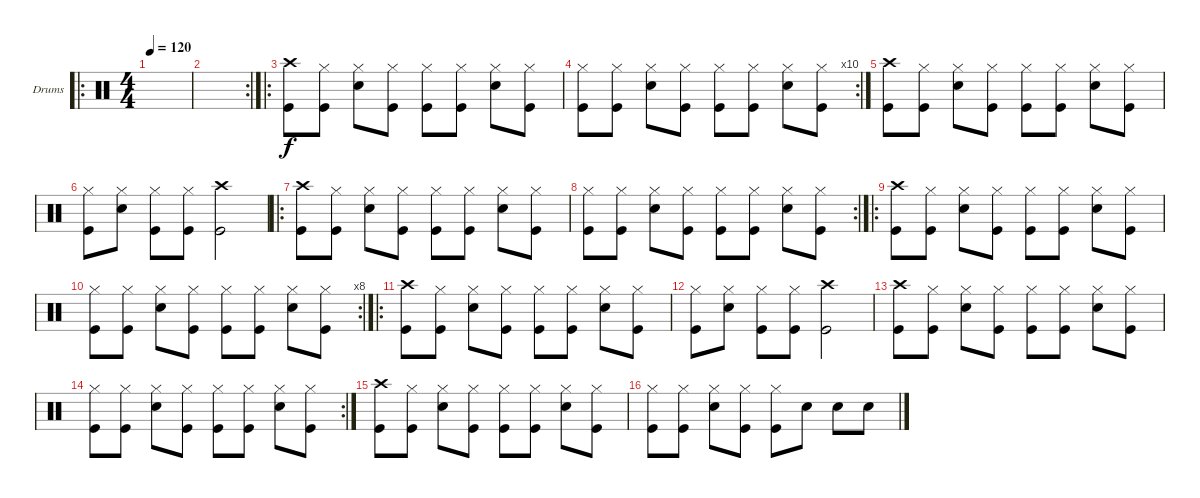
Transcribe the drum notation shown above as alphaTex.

\defaultSystemsLayout 4
\bracketExtendMode groupsimilarinstruments
\firstSystemTrackNameOrientation horizontal
\otherSystemsTrackNameOrientation horizontal
\track ("Drumkit" "Drums") {instrument percussion}
\staff {score}
\articulation defaults
\ro
\ts (4 4)
\tempo 120
\clef neutral
\ks c
|
\rc 2
|
\ro
("Kick (hit)" "Crash high (hit)").8 ("Kick (hit)" "Hi-Hat (closed)").8 ("Snare (hit) 2" "Hi-Hat (closed)").8 ("Kick (hit)" "Hi-Hat (closed)").8 ("Kick (hit)" "Hi-Hat (closed)").8 ("Kick (hit)" "Hi-Hat (closed)").8 ("Snare (hit) 2" "Hi-Hat (closed)").8 ("Kick (hit)" "Hi-Hat (closed)").8 |
\rc 10
("Kick (hit)" "Hi-Hat (closed)").8 ("Kick (hit)" "Hi-Hat (closed)").8 ("Snare (hit) 2" "Hi-Hat (closed)").8 ("Kick (hit)" "Hi-Hat (closed)").8 ("Kick (hit)" "Hi-Hat (closed)").8 ("Kick (hit)" "Hi-Hat (closed)").8 ("Snare (hit) 2" "Hi-Hat (closed)").8 ("Kick (hit)" "Hi-Hat (closed)").8 |
("Kick (hit)" "Crash high (hit)").8 ("Kick (hit)" "Hi-Hat (closed)").8 ("Snare (hit) 2" "Hi-Hat (closed)").8 ("Kick (hit)" "Hi-Hat (closed)").8 ("Kick (hit)" "Hi-Hat (closed)").8 ("Kick (hit)" "Hi-Hat (closed)").8 ("Snare (hit) 2" "Hi-Hat (closed)").8 ("Kick (hit)" "Hi-Hat (closed)").8 |
("Kick (hit)" "Hi-Hat (closed)").8 ("Snare (hit) 2" "Hi-Hat (closed)").8 ("Kick (hit)" "Hi-Hat (closed)").8 ("Kick (hit)" "Hi-Hat (closed)").8 ("Kick (hit)" "Crash high (hit)").2 |
\ro
("Kick (hit)" "Crash high (hit)").8 ("Kick (hit)" "Hi-Hat (closed)").8 ("Snare (hit) 2" "Hi-Hat (closed)").8 ("Kick (hit)" "Hi-Hat (closed)").8 ("Kick (hit)" "Hi-Hat (closed)").8 ("Kick (hit)" "Hi-Hat (closed)").8 ("Snare (hit) 2" "Hi-Hat (closed)").8 ("Kick (hit)" "Hi-Hat (closed)").8 |
\rc 2
("Kick (hit)" "Hi-Hat (closed)").8 ("Kick (hit)" "Hi-Hat (closed)").8 ("Snare (hit) 2" "Hi-Hat (closed)").8 ("Kick (hit)" "Hi-Hat (closed)").8 ("Kick (hit)" "Hi-Hat (closed)").8 ("Kick (hit)" "Hi-Hat (closed)").8 ("Snare (hit) 2" "Hi-Hat (closed)").8 ("Kick (hit)" "Hi-Hat (closed)").8 |
\ro
("Kick (hit)" "Crash high (hit)").8 ("Kick (hit)" "Hi-Hat (closed)").8 ("Snare (hit) 2" "Hi-Hat (closed)").8 ("Kick (hit)" "Hi-Hat (closed)").8 ("Kick (hit)" "Hi-Hat (closed)").8 ("Kick (hit)" "Hi-Hat (closed)").8 ("Snare (hit) 2" "Hi-Hat (closed)").8 ("Kick (hit)" "Hi-Hat (closed)").8 |
\rc 8
("Kick (hit)" "Hi-Hat (closed)").8 ("Kick (hit)" "Hi-Hat (closed)").8 ("Snare (hit) 2" "Hi-Hat (closed)").8 ("Kick (hit)" "Hi-Hat (closed)").8 ("Kick (hit)" "Hi-Hat (closed)").8 ("Kick (hit)" "Hi-Hat (closed)").8 ("Snare (hit) 2" "Hi-Hat (closed)").8 ("Kick (hit)" "Hi-Hat (closed)").8 |
\ro
("Kick (hit)" "Crash high (hit)").8 ("Kick (hit)" "Hi-Hat (closed)").8 ("Snare (hit) 2" "Hi-Hat (closed)").8 ("Kick (hit)" "Hi-Hat (closed)").8 ("Kick (hit)" "Hi-Hat (closed)").8 ("Kick (hit)" "Hi-Hat (closed)").8 ("Snare (hit) 2" "Hi-Hat (closed)").8 ("Kick (hit)" "Hi-Hat (closed)").8 |
("Kick (hit)" "Hi-Hat (closed)").8 ("Snare (hit) 2" "Hi-Hat (closed)").8 ("Kick (hit)" "Hi-Hat (closed)").8 ("Kick (hit)" "Hi-Hat (closed)").8 ("Kick (hit)" "Crash high (hit)").2 |
("Kick (hit)" "Crash high (hit)").8 ("Kick (hit)" "Hi-Hat (closed)").8 ("Snare (hit) 2" "Hi-Hat (closed)").8 ("Kick (hit)" "Hi-Hat (closed)").8 ("Kick (hit)" "Hi-Hat (closed)").8 ("Kick (hit)" "Hi-Hat (closed)").8 ("Snare (hit) 2" "Hi-Hat (closed)").8 ("Kick (hit)" "Hi-Hat (closed)").8 |
\rc 2
("Kick (hit)" "Hi-Hat (closed)").8 ("Kick (hit)" "Hi-Hat (closed)").8 ("Snare (hit) 2" "Hi-Hat (closed)").8 ("Kick (hit)" "Hi-Hat (closed)").8 ("Kick (hit)" "Hi-Hat (closed)").8 ("Kick (hit)" "Hi-Hat (closed)").8 ("Snare (hit) 2" "Hi-Hat (closed)").8 ("Kick (hit)" "Hi-Hat (closed)").8 |
("Kick (hit)" "Crash high (hit)").8 ("Kick (hit)" "Hi-Hat (closed)").8 ("Snare (hit) 2" "Hi-Hat (closed)").8 ("Kick (hit)" "Hi-Hat (closed)").8 ("Kick (hit)" "Hi-Hat (closed)").8 ("Kick (hit)" "Hi-Hat (closed)").8 ("Snare (hit) 2" "Hi-Hat (closed)").8 ("Kick (hit)" "Hi-Hat (closed)").8 |
("Kick (hit)" "Hi-Hat (closed)").8 ("Kick (hit)" "Hi-Hat (closed)").8 ("Snare (hit) 2" "Hi-Hat (closed)").8 ("Kick (hit)" "Hi-Hat (closed)").8 ("Kick (hit)" "Hi-Hat (closed)").8 "Snare (hit) 2".8{dy f} "Snare (hit) 2".8 "Snare (hit) 2".8
